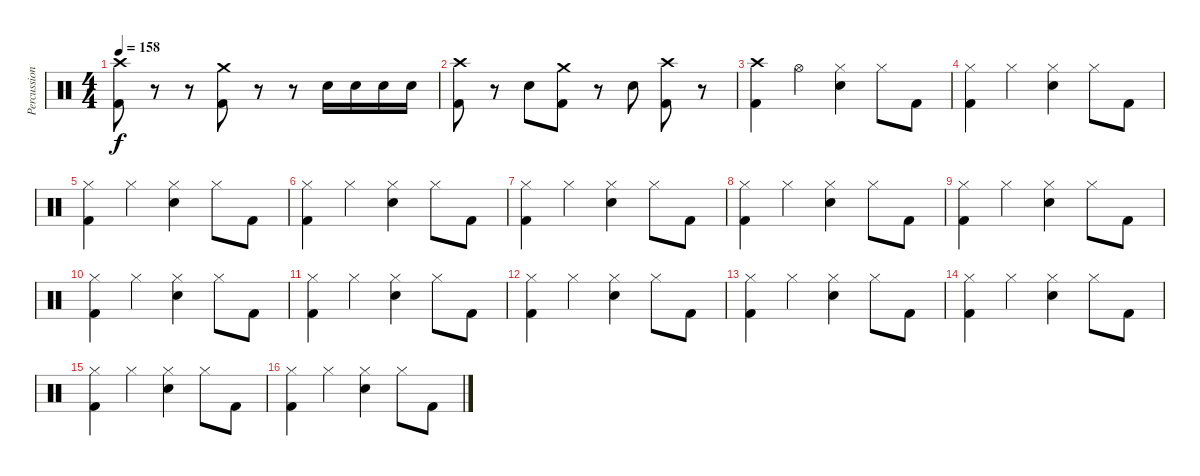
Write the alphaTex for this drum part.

\track ("Percussions" "Percussion") {instrument percussion}
\staff {score}
\articulation defaults
\ts (4 4)
\tempo 158
\clef neutral
\ks c
("Crash high (hit)" "Kick (hit) 2").8{dy f} r.8 r.8 ("Crash medium (hit)" "Kick (hit) 2").8 r.8 r.8 "Snare (hit) 2".16 "Snare (hit) 2".16 "Snare (hit) 2".16 "Snare (hit) 2".16 |
("Crash high (hit)" "Kick (hit) 2").8 r.8 "Snare (hit) 2".8 ("Crash medium (hit)" "Kick (hit) 2").8 r.8 "Snare (hit) 2".8 ("Crash high (hit)" "Kick (hit) 2").8 r.8 |
("Crash high (hit)" "Kick (hit) 2").4 "Hi-Hat (open)".4 ("Hi-Hat (closed)" "Snare (hit) 2").4 "Hi-Hat (closed)".8 "Kick (hit) 2".8 |
("Hi-Hat (closed)" "Kick (hit) 2").4 "Hi-Hat (closed)".4 ("Hi-Hat (closed)" "Snare (hit) 2").4 "Hi-Hat (closed)".8 "Kick (hit) 2".8 |
("Hi-Hat (closed)" "Kick (hit) 2").4 "Hi-Hat (closed)".4 ("Hi-Hat (closed)" "Snare (hit) 2").4 "Hi-Hat (closed)".8 "Kick (hit) 2".8 |
("Hi-Hat (closed)" "Kick (hit) 2").4 "Hi-Hat (closed)".4 ("Hi-Hat (closed)" "Snare (hit) 2").4 "Hi-Hat (closed)".8 "Kick (hit) 2".8 |
("Hi-Hat (closed)" "Kick (hit) 2").4 "Hi-Hat (closed)".4 ("Hi-Hat (closed)" "Snare (hit) 2").4 "Hi-Hat (closed)".8 "Kick (hit) 2".8 |
("Hi-Hat (closed)" "Kick (hit) 2").4 "Hi-Hat (closed)".4 ("Hi-Hat (closed)" "Snare (hit) 2").4 "Hi-Hat (closed)".8 "Kick (hit) 2".8 |
("Hi-Hat (closed)" "Kick (hit) 2").4 "Hi-Hat (closed)".4 ("Hi-Hat (closed)" "Snare (hit) 2").4 "Hi-Hat (closed)".8 "Kick (hit) 2".8 |
("Hi-Hat (closed)" "Kick (hit) 2").4 "Hi-Hat (closed)".4 ("Hi-Hat (closed)" "Snare (hit) 2").4 "Hi-Hat (closed)".8 "Kick (hit) 2".8 |
("Hi-Hat (closed)" "Kick (hit) 2").4 "Hi-Hat (closed)".4 ("Hi-Hat (closed)" "Snare (hit) 2").4 "Hi-Hat (closed)".8 "Kick (hit) 2".8 |
("Hi-Hat (closed)" "Kick (hit) 2").4 "Hi-Hat (closed)".4 ("Hi-Hat (closed)" "Snare (hit) 2").4 "Hi-Hat (closed)".8 "Kick (hit) 2".8 |
("Hi-Hat (closed)" "Kick (hit) 2").4 "Hi-Hat (closed)".4 ("Hi-Hat (closed)" "Snare (hit) 2").4 "Hi-Hat (closed)".8 "Kick (hit) 2".8 |
("Hi-Hat (closed)" "Kick (hit) 2").4 "Hi-Hat (closed)".4 ("Hi-Hat (closed)" "Snare (hit) 2").4 "Hi-Hat (closed)".8 "Kick (hit) 2".8 |
("Hi-Hat (closed)" "Kick (hit) 2").4 "Hi-Hat (closed)".4 ("Hi-Hat (closed)" "Snare (hit) 2").4 "Hi-Hat (closed)".8 "Kick (hit) 2".8 |
("Hi-Hat (closed)" "Kick (hit) 2").4 "Hi-Hat (closed)".4 ("Hi-Hat (closed)" "Snare (hit) 2").4 "Hi-Hat (closed)".8 "Kick (hit) 2".8
